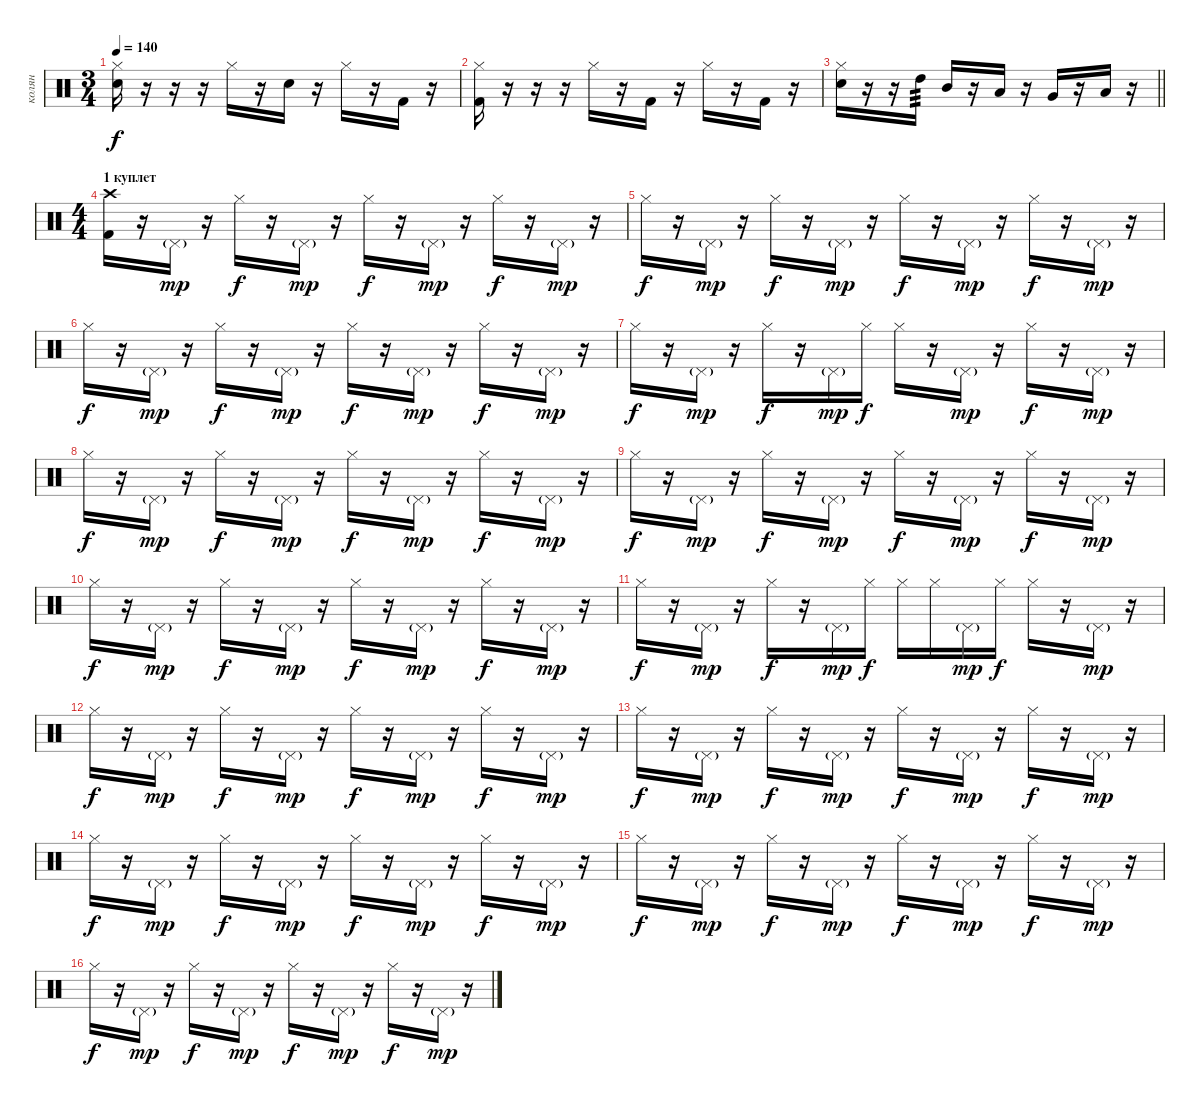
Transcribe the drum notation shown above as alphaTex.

\track ("колян" "колян") {instrument percussion}
\staff {score}
\articulation defaults
\ts (3 4)
\tempo 140
\clef neutral
\ks c
("Snare (hit) 2" "Hi-Hat (closed)").16{dy f} r.16 r.16 r.16 "Hi-Hat (closed)".16 r.16 "Snare (hit) 2".16 r.16 "Hi-Hat (closed)".16 r.16 "Kick (hit) 2".16 r.16 |
("Kick (hit) 2" "Hi-Hat (closed)").16 r.16 r.16 r.16 "Hi-Hat (closed)".16 r.16 "Kick (hit) 2".16 r.16 "Hi-Hat (closed)".16 r.16 "Kick (hit) 2".16 r.16 |
\barLineRight lightlight
("Snare (hit) 2" "Hi-Hat (closed)").16 r.16 r.16 "High Tom (hit)".16{tp 3} "Mid Tom (hit)".16 r.16 "Low Tom (hit)".16 r.16 "Very Low Tom (hit)".16 r.16 "Low Floor Tom (hit)".16 r.16 |
\ts (4 4)
\section ("" "1 куплет")
("Kick (hit) 2" "Crash high (hit)").16 r.16 "Pedal Hi-Hat (hit)"{g}.16{dy mp} r.16 "Hi-Hat (closed)".16{dy f} r.16 "Pedal Hi-Hat (hit)"{g}.16{dy mp} r.16 "Hi-Hat (closed)".16{dy f} r.16 "Pedal Hi-Hat (hit)"{g}.16{dy mp} r.16 "Hi-Hat (closed)".16{dy f} r.16 "Pedal Hi-Hat (hit)"{g}.16{dy mp} r.16 |
"Hi-Hat (closed)".16{dy f} r.16 "Pedal Hi-Hat (hit)"{g}.16{dy mp} r.16 "Hi-Hat (closed)".16{dy f} r.16 "Pedal Hi-Hat (hit)"{g}.16{dy mp} r.16 "Hi-Hat (closed)".16{dy f} r.16 "Pedal Hi-Hat (hit)"{g}.16{dy mp} r.16 "Hi-Hat (closed)".16{dy f} r.16 "Pedal Hi-Hat (hit)"{g}.16{dy mp} r.16 |
"Hi-Hat (closed)".16{dy f} r.16 "Pedal Hi-Hat (hit)"{g}.16{dy mp} r.16 "Hi-Hat (closed)".16{dy f} r.16 "Pedal Hi-Hat (hit)"{g}.16{dy mp} r.16 "Hi-Hat (closed)".16{dy f} r.16 "Pedal Hi-Hat (hit)"{g}.16{dy mp} r.16 "Hi-Hat (closed)".16{dy f} r.16 "Pedal Hi-Hat (hit)"{g}.16{dy mp} r.16 |
"Hi-Hat (closed)".16{dy f} r.16 "Pedal Hi-Hat (hit)"{g}.16{dy mp} r.16 "Hi-Hat (closed)".16{dy f} r.16 "Pedal Hi-Hat (hit)"{g}.16{dy mp} "Hi-Hat (closed)".16{dy f} "Hi-Hat (closed)".16 r.16 "Pedal Hi-Hat (hit)"{g}.16{dy mp} r.16 "Hi-Hat (closed)".16{dy f} r.16 "Pedal Hi-Hat (hit)"{g}.16{dy mp} r.16 |
"Hi-Hat (closed)".16{dy f} r.16 "Pedal Hi-Hat (hit)"{g}.16{dy mp} r.16 "Hi-Hat (closed)".16{dy f} r.16 "Pedal Hi-Hat (hit)"{g}.16{dy mp} r.16 "Hi-Hat (closed)".16{dy f} r.16 "Pedal Hi-Hat (hit)"{g}.16{dy mp} r.16 "Hi-Hat (closed)".16{dy f} r.16 "Pedal Hi-Hat (hit)"{g}.16{dy mp} r.16 |
"Hi-Hat (closed)".16{dy f} r.16 "Pedal Hi-Hat (hit)"{g}.16{dy mp} r.16 "Hi-Hat (closed)".16{dy f} r.16 "Pedal Hi-Hat (hit)"{g}.16{dy mp} r.16 "Hi-Hat (closed)".16{dy f} r.16 "Pedal Hi-Hat (hit)"{g}.16{dy mp} r.16 "Hi-Hat (closed)".16{dy f} r.16 "Pedal Hi-Hat (hit)"{g}.16{dy mp} r.16 |
"Hi-Hat (closed)".16{dy f} r.16 "Pedal Hi-Hat (hit)"{g}.16{dy mp} r.16 "Hi-Hat (closed)".16{dy f} r.16 "Pedal Hi-Hat (hit)"{g}.16{dy mp} r.16 "Hi-Hat (closed)".16{dy f} r.16 "Pedal Hi-Hat (hit)"{g}.16{dy mp} r.16 "Hi-Hat (closed)".16{dy f} r.16 "Pedal Hi-Hat (hit)"{g}.16{dy mp} r.16 |
"Hi-Hat (closed)".16{dy f} r.16 "Pedal Hi-Hat (hit)"{g}.16{dy mp} r.16 "Hi-Hat (closed)".16{dy f} r.16 "Pedal Hi-Hat (hit)"{g}.16{dy mp} "Hi-Hat (closed)".16{dy f} "Hi-Hat (closed)".16 "Hi-Hat (closed)".16 "Pedal Hi-Hat (hit)"{g}.16{dy mp} "Hi-Hat (closed)".16{dy f} "Hi-Hat (closed)".16 r.16 "Pedal Hi-Hat (hit)"{g}.16{dy mp} r.16 |
"Hi-Hat (closed)".16{dy f} r.16 "Pedal Hi-Hat (hit)"{g}.16{dy mp} r.16 "Hi-Hat (closed)".16{dy f} r.16 "Pedal Hi-Hat (hit)"{g}.16{dy mp} r.16 "Hi-Hat (closed)".16{dy f} r.16 "Pedal Hi-Hat (hit)"{g}.16{dy mp} r.16 "Hi-Hat (closed)".16{dy f} r.16 "Pedal Hi-Hat (hit)"{g}.16{dy mp} r.16 |
"Hi-Hat (closed)".16{dy f} r.16 "Pedal Hi-Hat (hit)"{g}.16{dy mp} r.16 "Hi-Hat (closed)".16{dy f} r.16 "Pedal Hi-Hat (hit)"{g}.16{dy mp} r.16 "Hi-Hat (closed)".16{dy f} r.16 "Pedal Hi-Hat (hit)"{g}.16{dy mp} r.16 "Hi-Hat (closed)".16{dy f} r.16 "Pedal Hi-Hat (hit)"{g}.16{dy mp} r.16 |
"Hi-Hat (closed)".16{dy f} r.16 "Pedal Hi-Hat (hit)"{g}.16{dy mp} r.16 "Hi-Hat (closed)".16{dy f} r.16 "Pedal Hi-Hat (hit)"{g}.16{dy mp} r.16 "Hi-Hat (closed)".16{dy f} r.16 "Pedal Hi-Hat (hit)"{g}.16{dy mp} r.16 "Hi-Hat (closed)".16{dy f} r.16 "Pedal Hi-Hat (hit)"{g}.16{dy mp} r.16 |
"Hi-Hat (closed)".16{dy f} r.16 "Pedal Hi-Hat (hit)"{g}.16{dy mp} r.16 "Hi-Hat (closed)".16{dy f} r.16 "Pedal Hi-Hat (hit)"{g}.16{dy mp} r.16 "Hi-Hat (closed)".16{dy f} r.16 "Pedal Hi-Hat (hit)"{g}.16{dy mp} r.16 "Hi-Hat (closed)".16{dy f} r.16 "Pedal Hi-Hat (hit)"{g}.16{dy mp} r.16 |
"Hi-Hat (closed)".16{dy f} r.16 "Pedal Hi-Hat (hit)"{g}.16{dy mp} r.16 "Hi-Hat (closed)".16{dy f} r.16 "Pedal Hi-Hat (hit)"{g}.16{dy mp} r.16 "Hi-Hat (closed)".16{dy f} r.16 "Pedal Hi-Hat (hit)"{g}.16{dy mp} r.16 "Hi-Hat (closed)".16{dy f} r.16 "Pedal Hi-Hat (hit)"{g}.16{dy mp} r.16
